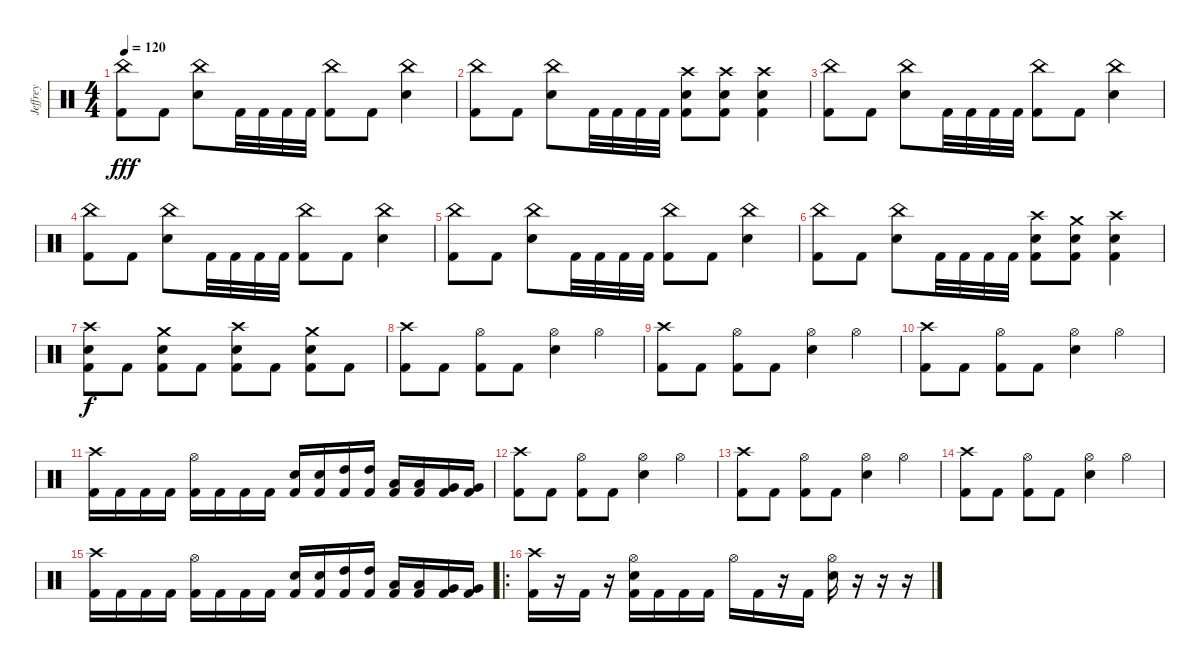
\track ("Jeffrey" "Jeffrey") {instrument percussion}
\staff {score}
\articulation defaults
\ts (4 4)
\tempo 120
\clef neutral
\ks c
("China (hit)" "Kick (hit) 2").8{dy fff} "Kick (hit) 2".8 ("China (hit)" "Electric Snare (hit)").8 "Kick (hit) 2".32 "Kick (hit) 2".32 "Kick (hit) 2".32 "Kick (hit) 2".32 ("China (hit)" "Kick (hit) 2").8 "Kick (hit) 2".8 ("China (hit)" "Electric Snare (hit)").4 |
("China (hit)" "Kick (hit) 2").8 "Kick (hit) 2".8 ("China (hit)" "Electric Snare (hit)").8 "Kick (hit) 2".32 "Kick (hit) 2".32 "Kick (hit) 2".32 "Kick (hit) 2".32 ("Crash high (hit)" "Electric Snare (hit)" "Kick (hit) 2").8 ("Crash high (hit)" "Electric Snare (hit)" "Kick (hit) 2").8 ("Crash high (hit)" "Electric Snare (hit)" "Kick (hit) 2").4 |
("China (hit)" "Kick (hit) 2").8 "Kick (hit) 2".8 ("China (hit)" "Electric Snare (hit)").8 "Kick (hit) 2".32 "Kick (hit) 2".32 "Kick (hit) 2".32 "Kick (hit) 2".32 ("China (hit)" "Kick (hit) 2").8 "Kick (hit) 2".8 ("China (hit)" "Electric Snare (hit)").4 |
("China (hit)" "Kick (hit) 2").8 "Kick (hit) 2".8 ("China (hit)" "Electric Snare (hit)").8 "Kick (hit) 2".32 "Kick (hit) 2".32 "Kick (hit) 2".32 "Kick (hit) 2".32 ("China (hit)" "Kick (hit) 2").8 "Kick (hit) 2".8 ("China (hit)" "Electric Snare (hit)").4 |
("China (hit)" "Kick (hit) 2").8 "Kick (hit) 2".8 ("China (hit)" "Electric Snare (hit)").8 "Kick (hit) 2".32 "Kick (hit) 2".32 "Kick (hit) 2".32 "Kick (hit) 2".32 ("China (hit)" "Kick (hit) 2").8 "Kick (hit) 2".8 ("China (hit)" "Electric Snare (hit)").4 |
("China (hit)" "Kick (hit) 2").8 "Kick (hit) 2".8 ("China (hit)" "Electric Snare (hit)").8 "Kick (hit) 2".32 "Kick (hit) 2".32 "Kick (hit) 2".32 "Kick (hit) 2".32 ("Crash high (hit)" "Electric Snare (hit)" "Kick (hit) 2").8 ("Crash medium (hit)" "Electric Snare (hit)" "Kick (hit) 2").8 ("Crash high (hit)" "Electric Snare (hit)" "Kick (hit) 2").4 |
("Crash high (hit)" "Electric Snare (hit)" "Kick (hit) 2").8{dy f} "Kick (hit) 2".8 ("Crash medium (hit)" "Electric Snare (hit)" "Kick (hit) 2").8 "Kick (hit) 2".8 ("Crash high (hit)" "Electric Snare (hit)" "Kick (hit) 2").8 "Kick (hit) 2".8 ("Crash medium (hit)" "Electric Snare (hit)" "Kick (hit) 2").8 "Kick (hit) 2".8 |
("Crash high (hit)" "Kick (hit) 2").8 "Kick (hit) 2".8 ("Hi-Hat (open)" "Kick (hit) 2").8 "Kick (hit) 2".8 ("Hi-Hat (open)" "Electric Snare (hit)").4 "Hi-Hat (open)".4 |
("Crash high (hit)" "Kick (hit) 2").8 "Kick (hit) 2".8 ("Hi-Hat (open)" "Kick (hit) 2").8 "Kick (hit) 2".8 ("Hi-Hat (open)" "Electric Snare (hit)").4 "Hi-Hat (open)".4 |
("Crash high (hit)" "Kick (hit) 2").8 "Kick (hit) 2".8 ("Hi-Hat (open)" "Kick (hit) 2").8 "Kick (hit) 2".8 ("Hi-Hat (open)" "Electric Snare (hit)").4 "Hi-Hat (open)".4 |
("Crash high (hit)" "Kick (hit) 2").16 "Kick (hit) 2".16 "Kick (hit) 2".16 "Kick (hit) 2".16 ("Hi-Hat (open)" "Kick (hit) 2").16 "Kick (hit) 2".16 "Kick (hit) 2".16 "Kick (hit) 2".16 ("Electric Snare (hit)" "Kick (hit) 2").16 ("Electric Snare (hit)" "Kick (hit) 2").16 ("High Tom (hit)" "Kick (hit) 2").16 ("High Tom (hit)" "Kick (hit) 2").16 ("Low Tom (hit)" "Kick (hit) 2").16 ("Low Tom (hit)" "Kick (hit) 2").16 ("Very Low Tom (hit)" "Kick (hit) 2").16 ("Very Low Tom (hit)" "Kick (hit) 2").16 |
("Crash high (hit)" "Kick (hit) 2").8 "Kick (hit) 2".8 ("Hi-Hat (open)" "Kick (hit) 2").8 "Kick (hit) 2".8 ("Hi-Hat (open)" "Electric Snare (hit)").4 "Hi-Hat (open)".4 |
("Crash high (hit)" "Kick (hit) 2").8 "Kick (hit) 2".8 ("Hi-Hat (open)" "Kick (hit) 2").8 "Kick (hit) 2".8 ("Hi-Hat (open)" "Electric Snare (hit)").4 "Hi-Hat (open)".4 |
("Crash high (hit)" "Kick (hit) 2").8 "Kick (hit) 2".8 ("Hi-Hat (open)" "Kick (hit) 2").8 "Kick (hit) 2".8 ("Hi-Hat (open)" "Electric Snare (hit)").4 "Hi-Hat (open)".4 |
("Crash high (hit)" "Kick (hit) 2").16 "Kick (hit) 2".16 "Kick (hit) 2".16 "Kick (hit) 2".16 ("Hi-Hat (open)" "Kick (hit) 2").16 "Kick (hit) 2".16 "Kick (hit) 2".16 "Kick (hit) 2".16 ("Electric Snare (hit)" "Kick (hit) 2").16 ("Electric Snare (hit)" "Kick (hit) 2").16 ("High Tom (hit)" "Kick (hit) 2").16 ("High Tom (hit)" "Kick (hit) 2").16 ("Low Tom (hit)" "Kick (hit) 2").16 ("Low Tom (hit)" "Kick (hit) 2").16 ("Very Low Tom (hit)" "Kick (hit) 2").16 ("Very Low Tom (hit)" "Kick (hit) 2").16 |
\ro
("Crash high (hit)" "Kick (hit) 2").16 r.16 "Kick (hit) 2".16 r.16 ("Hi-Hat (open)" "Electric Snare (hit)" "Kick (hit) 2").16 "Kick (hit) 2".16 "Kick (hit) 2".16 "Kick (hit) 2".16 "Hi-Hat (open)".16 "Kick (hit) 2".16 r.16 "Kick (hit) 2".16 ("Hi-Hat (open)" "Electric Snare (hit)").16 r.16 r.16 r.16
